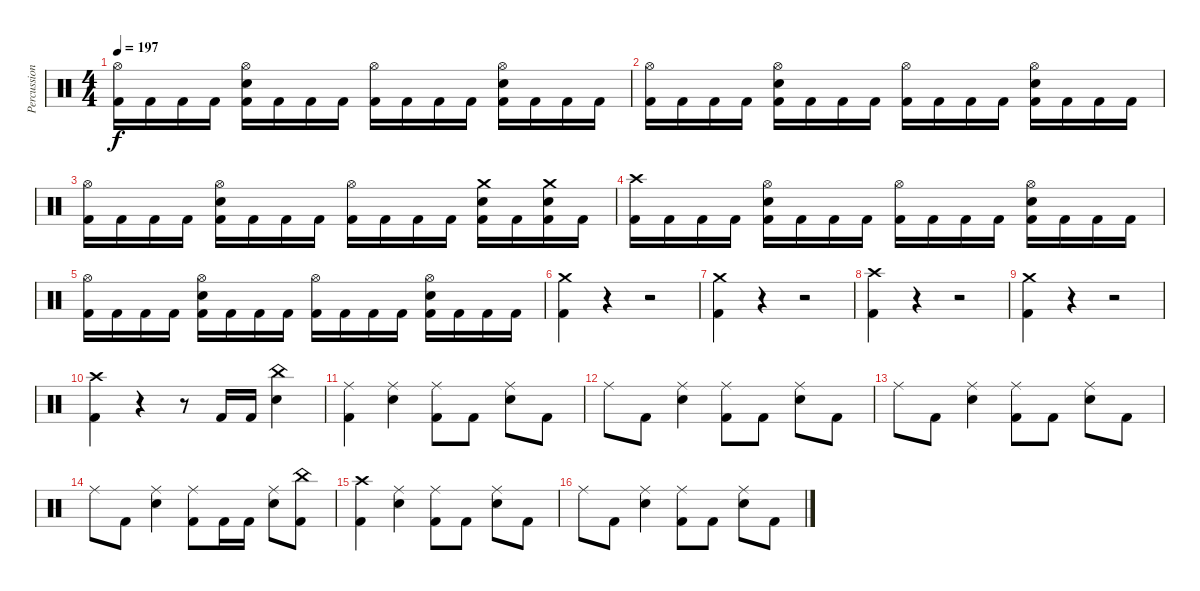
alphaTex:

\track ("Percussions" "Percussion") {instrument percussion}
\staff {score}
\articulation defaults
\ts (4 4)
\tempo 197
\clef neutral
\ks c
("Hi-Hat (open)" "Kick (hit) 2").16{dy f} "Kick (hit) 2".16 "Kick (hit) 2".16 "Kick (hit) 2".16 ("Hi-Hat (open)" "Snare (hit) 2" "Kick (hit) 2").16 "Kick (hit) 2".16 "Kick (hit) 2".16 "Kick (hit) 2".16 ("Hi-Hat (open)" "Kick (hit) 2").16 "Kick (hit) 2".16 "Kick (hit) 2".16 "Kick (hit) 2".16 ("Hi-Hat (open)" "Snare (hit) 2" "Kick (hit) 2").16 "Kick (hit) 2".16 "Kick (hit) 2".16 "Kick (hit) 2".16 |
("Hi-Hat (open)" "Kick (hit) 2").16 "Kick (hit) 2".16 "Kick (hit) 2".16 "Kick (hit) 2".16 ("Hi-Hat (open)" "Snare (hit) 2" "Kick (hit) 2").16 "Kick (hit) 2".16 "Kick (hit) 2".16 "Kick (hit) 2".16 ("Hi-Hat (open)" "Kick (hit) 2").16 "Kick (hit) 2".16 "Kick (hit) 2".16 "Kick (hit) 2".16 ("Hi-Hat (open)" "Snare (hit) 2" "Kick (hit) 2").16 "Kick (hit) 2".16 "Kick (hit) 2".16 "Kick (hit) 2".16 |
("Hi-Hat (open)" "Kick (hit) 2").16 "Kick (hit) 2".16 "Kick (hit) 2".16 "Kick (hit) 2".16 ("Hi-Hat (open)" "Snare (hit) 2" "Kick (hit) 2").16 "Kick (hit) 2".16 "Kick (hit) 2".16 "Kick (hit) 2".16 ("Hi-Hat (open)" "Kick (hit) 2").16 "Kick (hit) 2".16 "Kick (hit) 2".16 "Kick (hit) 2".16 ("Crash medium (hit)" "Snare (hit) 2" "Kick (hit) 2").16 "Kick (hit) 2".16 ("Crash medium (hit)" "Snare (hit) 2" "Kick (hit) 2").16 "Kick (hit) 2".16 |
("Crash high (hit)" "Kick (hit) 2").16 "Kick (hit) 2".16 "Kick (hit) 2".16 "Kick (hit) 2".16 ("Hi-Hat (open)" "Snare (hit) 2" "Kick (hit) 2").16 "Kick (hit) 2".16 "Kick (hit) 2".16 "Kick (hit) 2".16 ("Hi-Hat (open)" "Kick (hit) 2").16 "Kick (hit) 2".16 "Kick (hit) 2".16 "Kick (hit) 2".16 ("Hi-Hat (open)" "Snare (hit) 2" "Kick (hit) 2").16 "Kick (hit) 2".16 "Kick (hit) 2".16 "Kick (hit) 2".16 |
("Hi-Hat (open)" "Kick (hit) 2").16 "Kick (hit) 2".16 "Kick (hit) 2".16 "Kick (hit) 2".16 ("Hi-Hat (open)" "Snare (hit) 2" "Kick (hit) 2").16 "Kick (hit) 2".16 "Kick (hit) 2".16 "Kick (hit) 2".16 ("Hi-Hat (open)" "Kick (hit) 2").16 "Kick (hit) 2".16 "Kick (hit) 2".16 "Kick (hit) 2".16 ("Hi-Hat (open)" "Snare (hit) 2" "Kick (hit) 2").16 "Kick (hit) 2".16 "Kick (hit) 2".16 "Kick (hit) 2".16 |
("Crash medium (hit)" "Kick (hit) 2").4 r.4 r.2 |
("Crash medium (hit)" "Kick (hit) 2").4 r.4 r.2 |
("Crash high (hit)" "Kick (hit) 2").4 r.4 r.2 |
("Crash medium (hit)" "Kick (hit) 2").4 r.4 r.2 |
("Crash high (hit)" "Kick (hit) 2").4 r.4 r.8 "Kick (hit) 2".16 "Kick (hit) 2".16 ("China (hit)" "Snare (hit) 2").4 |
("Ride (middle)" "Kick (hit) 2").4 ("Ride (middle)" "Snare (hit) 2").4 ("Ride (middle)" "Kick (hit) 2").8 "Kick (hit) 2".8 ("Ride (middle)" "Snare (hit) 2").8 "Kick (hit) 2".8 |
"Ride (middle)".8 "Kick (hit) 2".8 ("Ride (middle)" "Snare (hit) 2").4 ("Ride (middle)" "Kick (hit) 2").8 "Kick (hit) 2".8 ("Ride (middle)" "Snare (hit) 2").8 "Kick (hit) 2".8 |
"Ride (middle)".8 "Kick (hit) 2".8 ("Ride (middle)" "Snare (hit) 2").4 ("Ride (middle)" "Kick (hit) 2").8 "Kick (hit) 2".8 ("Ride (middle)" "Snare (hit) 2").8 "Kick (hit) 2".8 |
"Ride (middle)".8 "Kick (hit) 2".8 ("Ride (middle)" "Snare (hit) 2").4 ("Ride (middle)" "Kick (hit) 2").8 "Kick (hit) 2".16 "Kick (hit) 2".16 ("Ride (middle)" "Snare (hit) 2").8 ("China (hit)" "Kick (hit) 2").8 |
("Crash high (hit)" "Kick (hit) 2").4 ("Ride (middle)" "Snare (hit) 2").4 ("Ride (middle)" "Kick (hit) 2").8 "Kick (hit) 2".8 ("Ride (middle)" "Snare (hit) 2").8 "Kick (hit) 2".8 |
"Ride (middle)".8 "Kick (hit) 2".8 ("Ride (middle)" "Snare (hit) 2").4 ("Ride (middle)" "Kick (hit) 2").8 "Kick (hit) 2".8 ("Ride (middle)" "Snare (hit) 2").8 "Kick (hit) 2".8
